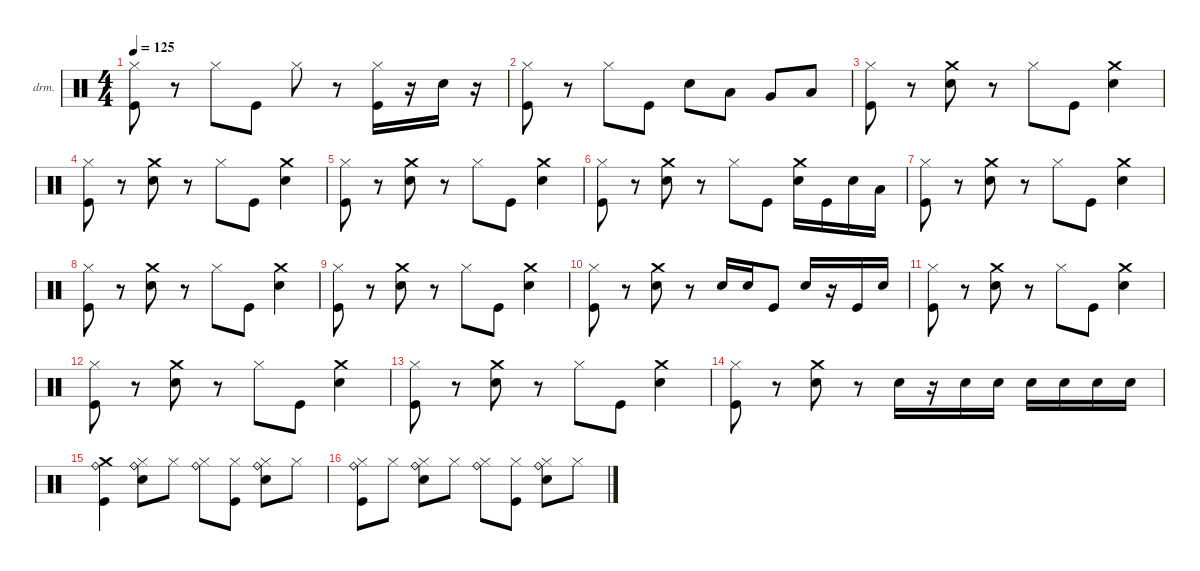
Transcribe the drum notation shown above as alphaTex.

\defaultSystemsLayout 4
\hideDynamics
\bracketExtendMode nobrackets
\firstSystemTrackNameOrientation horizontal
\otherSystemsTrackNameOrientation horizontal
\track ("Drum" "drm.") {instrument percussion}
\staff {score}
\articulation defaults
\ts (4 4)
\tempo 125
\clef neutral
\ks c
("Kick (hit)" "Hi-Hat (closed)").8{dy f} r.8 "Hi-Hat (closed)".8 "Kick (hit)".8 "Hi-Hat (closed)".8 r.8 ("Kick (hit)" "Hi-Hat (closed)").16 r.16 "Snare (hit) 2".16 r.16 |
("Kick (hit)" "Hi-Hat (closed)").8 r.8 "Hi-Hat (closed)".8 "Kick (hit)".8 "Snare (hit) 2".8 "Low Tom (hit)".8 "Very Low Tom (hit)".8 "Low Floor Tom (hit)".8 |
("Kick (hit)" "Hi-Hat (closed)").8 r.8 ("Snare (hit) 2" "Crash medium (hit)").8 r.8 "Hi-Hat (closed)".8 "Kick (hit)".8 ("Snare (hit) 2" "Crash medium (hit)").4 |
("Kick (hit)" "Hi-Hat (closed)").8 r.8 ("Snare (hit) 2" "Crash medium (hit)").8 r.8 "Hi-Hat (closed)".8 "Kick (hit)".8 ("Snare (hit) 2" "Crash medium (hit)").4 |
("Kick (hit)" "Hi-Hat (closed)").8 r.8 ("Snare (hit) 2" "Crash medium (hit)").8 r.8 "Hi-Hat (closed)".8 "Kick (hit)".8 ("Snare (hit) 2" "Crash medium (hit)").4 |
("Kick (hit)" "Hi-Hat (closed)").8 r.8 ("Snare (hit) 2" "Crash medium (hit)").8 r.8 "Hi-Hat (closed)".8 "Kick (hit)".8 ("Snare (hit) 2" "Crash medium (hit)").16 "Kick (hit)".16 "Snare (hit) 2".16 "Low Floor Tom (hit)".16 |
("Kick (hit)" "Hi-Hat (closed)").8 r.8 ("Snare (hit) 2" "Crash medium (hit)").8 r.8 "Hi-Hat (closed)".8 "Kick (hit)".8 ("Snare (hit) 2" "Crash medium (hit)").4 |
("Kick (hit)" "Hi-Hat (closed)").8 r.8 ("Snare (hit) 2" "Crash medium (hit)").8 r.8 "Hi-Hat (closed)".8 "Kick (hit)".8 ("Snare (hit) 2" "Crash medium (hit)").4 |
("Kick (hit)" "Hi-Hat (closed)").8 r.8 ("Snare (hit) 2" "Crash medium (hit)").8 r.8 "Hi-Hat (closed)".8 "Kick (hit)".8 ("Snare (hit) 2" "Crash medium (hit)").4 |
("Kick (hit)" "Hi-Hat (closed)").8 r.8 ("Snare (hit) 2" "Crash medium (hit)").8 r.8 "Snare (hit) 2".16 "Snare (hit) 2".16 "Kick (hit)".8 "Snare (hit) 2".16 r.16 "Kick (hit)".16 "Snare (hit) 2".16 |
("Kick (hit)" "Hi-Hat (closed)").8 r.8 ("Snare (hit) 2" "Crash medium (hit)").8 r.8 "Hi-Hat (closed)".8 "Kick (hit)".8 ("Snare (hit) 2" "Crash medium (hit)").4 |
("Kick (hit)" "Hi-Hat (closed)").8 r.8 ("Snare (hit) 2" "Crash medium (hit)").8 r.8 "Hi-Hat (closed)".8 "Kick (hit)".8 ("Snare (hit) 2" "Crash medium (hit)").4 |
("Kick (hit)" "Hi-Hat (closed)").8 r.8 ("Snare (hit) 2" "Crash medium (hit)").8 r.8 "Hi-Hat (closed)".8 "Kick (hit)".8 ("Snare (hit) 2" "Crash medium (hit)").4 |
("Kick (hit)" "Hi-Hat (closed)").8 r.8 ("Snare (hit) 2" "Crash medium (hit)").8 r.8 "Snare (hit) 2".16 r.16 "Snare (hit) 2".16 "Snare (hit) 2".16 "Snare (hit) 2".16 "Snare (hit) 2".16 "Snare (hit) 2".16 "Snare (hit) 2".16 |
("Kick (hit)" "Crash medium (hit)" "Ride (bell)").4 ("Snare (hit) 2" "Hi-Hat (closed)" "Ride (bell)").8 "Hi-Hat (closed)".8 ("Hi-Hat (closed)" "Ride (bell)").8 ("Kick (hit)" "Hi-Hat (closed)").8 ("Snare (hit) 2" "Hi-Hat (closed)" "Ride (bell)").8 "Hi-Hat (closed)".8 |
("Kick (hit)" "Hi-Hat (closed)" "Ride (bell)").8 "Hi-Hat (closed)".8 ("Snare (hit) 2" "Hi-Hat (closed)" "Ride (bell)").8 "Hi-Hat (closed)".8 ("Hi-Hat (closed)" "Ride (bell)").8 ("Kick (hit)" "Hi-Hat (closed)").8 ("Snare (hit) 2" "Hi-Hat (closed)" "Ride (bell)").8 "Hi-Hat (closed)".8
